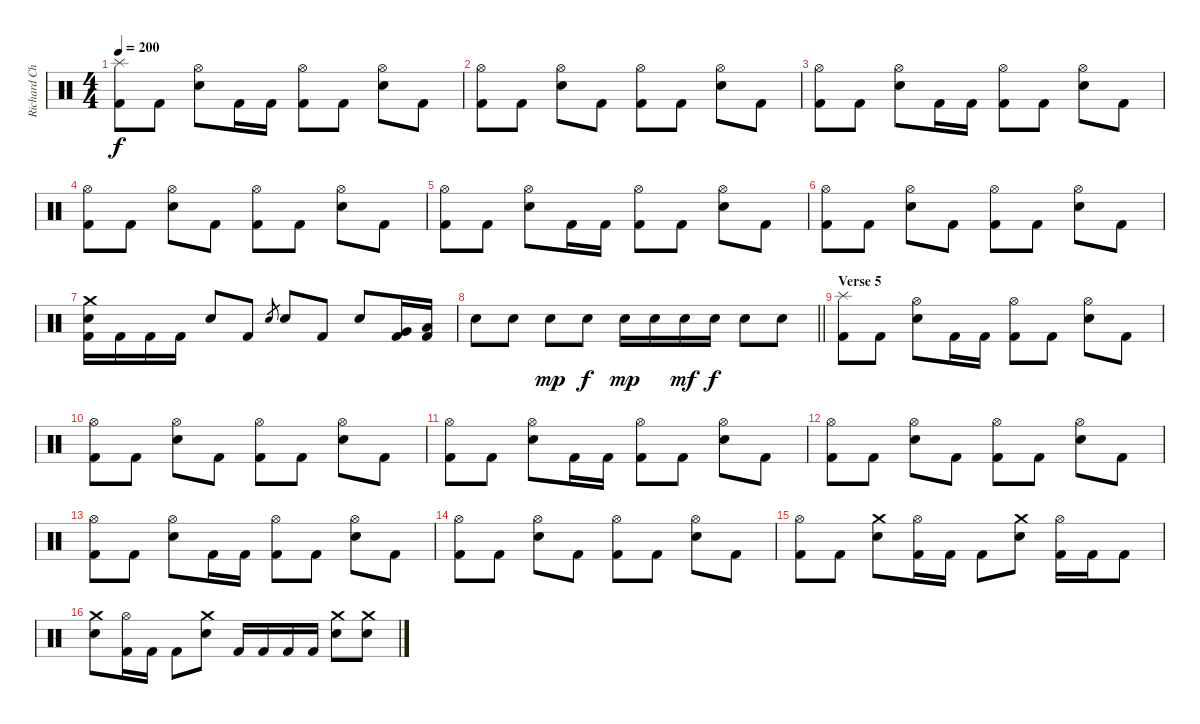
\track ("Richard Christy" "Richard Ch") {instrument percussion}
\staff {score}
\articulation defaults
\ts (4 4)
\tempo 200
\clef neutral
\ks c
("Splash (hit)" "Kick (hit) 2").8{dy f} "Kick (hit) 2".8 ("Hi-Hat (open)" "Electric Snare (hit)").8 "Kick (hit) 2".16 "Kick (hit) 2".16 ("Hi-Hat (open)" "Kick (hit) 2").8 "Kick (hit) 2".8 ("Hi-Hat (open)" "Electric Snare (hit)").8 "Kick (hit) 2".8 |
("Hi-Hat (open)" "Kick (hit) 2").8 "Kick (hit) 2".8 ("Hi-Hat (open)" "Electric Snare (hit)").8 "Kick (hit) 2".8 ("Hi-Hat (open)" "Kick (hit) 2").8 "Kick (hit) 2".8 ("Hi-Hat (open)" "Electric Snare (hit)").8 "Kick (hit) 2".8 |
("Hi-Hat (open)" "Kick (hit) 2").8 "Kick (hit) 2".8 ("Hi-Hat (open)" "Electric Snare (hit)").8 "Kick (hit) 2".16 "Kick (hit) 2".16 ("Hi-Hat (open)" "Kick (hit) 2").8 "Kick (hit) 2".8 ("Hi-Hat (open)" "Electric Snare (hit)").8 "Kick (hit) 2".8 |
("Hi-Hat (open)" "Kick (hit) 2").8 "Kick (hit) 2".8 ("Hi-Hat (open)" "Electric Snare (hit)").8 "Kick (hit) 2".8 ("Hi-Hat (open)" "Kick (hit) 2").8 "Kick (hit) 2".8 ("Hi-Hat (open)" "Electric Snare (hit)").8 "Kick (hit) 2".8 |
("Hi-Hat (open)" "Kick (hit) 2").8 "Kick (hit) 2".8 ("Hi-Hat (open)" "Electric Snare (hit)").8 "Kick (hit) 2".16 "Kick (hit) 2".16 ("Hi-Hat (open)" "Kick (hit) 2").8 "Kick (hit) 2".8 ("Hi-Hat (open)" "Electric Snare (hit)").8 "Kick (hit) 2".8 |
("Hi-Hat (open)" "Kick (hit) 2").8 "Kick (hit) 2".8 ("Hi-Hat (open)" "Electric Snare (hit)").8 "Kick (hit) 2".8 ("Hi-Hat (open)" "Kick (hit) 2").8 "Kick (hit) 2".8 ("Hi-Hat (open)" "Electric Snare (hit)").8 "Kick (hit) 2".8 |
("Crash medium (hit)" "Electric Snare (hit)" "Kick (hit) 2").16 "Kick (hit) 2".16 "Kick (hit) 2".16 "Kick (hit) 2".16 "Electric Snare (hit)".8 "Kick (hit) 2".8 "Electric Snare (hit)".8{gr} "Electric Snare (hit)".8 "Kick (hit) 2".8 "Electric Snare (hit)".8 ("Very Low Tom (hit)" "Kick (hit) 2").16 ("Low Floor Tom (hit)" "Kick (hit) 2").16 |
\barLineRight lightlight "Electric Snare (hit)".8 "Electric Snare (hit)".8 "Electric Snare (hit)".8{dy mp} "Electric Snare (hit)".8{dy f} "Electric Snare (hit)".16{dy mp} "Electric Snare (hit)".16 "Electric Snare (hit)".16{dy mf} "Electric Snare (hit)".16{dy f} "Electric Snare (hit)".8 "Electric Snare (hit)".8
|
\section ("" "Verse 5")
("Splash (hit)" "Kick (hit) 2").8 "Kick (hit) 2".8 ("Hi-Hat (open)" "Electric Snare (hit)").8 "Kick (hit) 2".16 "Kick (hit) 2".16 ("Hi-Hat (open)" "Kick (hit) 2").8 "Kick (hit) 2".8 ("Hi-Hat (open)" "Electric Snare (hit)").8 "Kick (hit) 2".8 |
("Hi-Hat (open)" "Kick (hit) 2").8 "Kick (hit) 2".8 ("Hi-Hat (open)" "Electric Snare (hit)").8 "Kick (hit) 2".8 ("Hi-Hat (open)" "Kick (hit) 2").8 "Kick (hit) 2".8 ("Hi-Hat (open)" "Electric Snare (hit)").8 "Kick (hit) 2".8 |
("Hi-Hat (open)" "Kick (hit) 2").8 "Kick (hit) 2".8 ("Hi-Hat (open)" "Electric Snare (hit)").8 "Kick (hit) 2".16 "Kick (hit) 2".16 ("Hi-Hat (open)" "Kick (hit) 2").8 "Kick (hit) 2".8 ("Hi-Hat (open)" "Electric Snare (hit)").8 "Kick (hit) 2".8 |
("Hi-Hat (open)" "Kick (hit) 2").8 "Kick (hit) 2".8 ("Hi-Hat (open)" "Electric Snare (hit)").8 "Kick (hit) 2".8 ("Hi-Hat (open)" "Kick (hit) 2").8 "Kick (hit) 2".8 ("Hi-Hat (open)" "Electric Snare (hit)").8 "Kick (hit) 2".8 |
("Hi-Hat (open)" "Kick (hit) 2").8 "Kick (hit) 2".8 ("Hi-Hat (open)" "Electric Snare (hit)").8 "Kick (hit) 2".16 "Kick (hit) 2".16 ("Hi-Hat (open)" "Kick (hit) 2").8 "Kick (hit) 2".8 ("Hi-Hat (open)" "Electric Snare (hit)").8 "Kick (hit) 2".8 |
("Hi-Hat (open)" "Kick (hit) 2").8 "Kick (hit) 2".8 ("Hi-Hat (open)" "Electric Snare (hit)").8 "Kick (hit) 2".8 ("Hi-Hat (open)" "Kick (hit) 2").8 "Kick (hit) 2".8 ("Hi-Hat (open)" "Electric Snare (hit)").8 "Kick (hit) 2".8 |
("Hi-Hat (open)" "Kick (hit) 2").8 "Kick (hit) 2".8 ("Crash medium (hit)" "Electric Snare (hit)").8 ("Hi-Hat (open)" "Kick (hit) 2").16 "Kick (hit) 2".16 "Kick (hit) 2".8 ("Crash medium (hit)" "Electric Snare (hit)").8 ("Hi-Hat (open)" "Kick (hit) 2").16 "Kick (hit) 2".16 "Kick (hit) 2".8 |
("Crash medium (hit)" "Electric Snare (hit)").8 ("Hi-Hat (open)" "Kick (hit) 2").16 "Kick (hit) 2".16 "Kick (hit) 2".8 ("Crash medium (hit)" "Electric Snare (hit)").8 "Kick (hit) 2".16 "Kick (hit) 2".16 "Kick (hit) 2".16 "Kick (hit) 2".16 ("Crash medium (hit)" "Electric Snare (hit)").8 ("Crash medium (hit)" "Electric Snare (hit)").8
